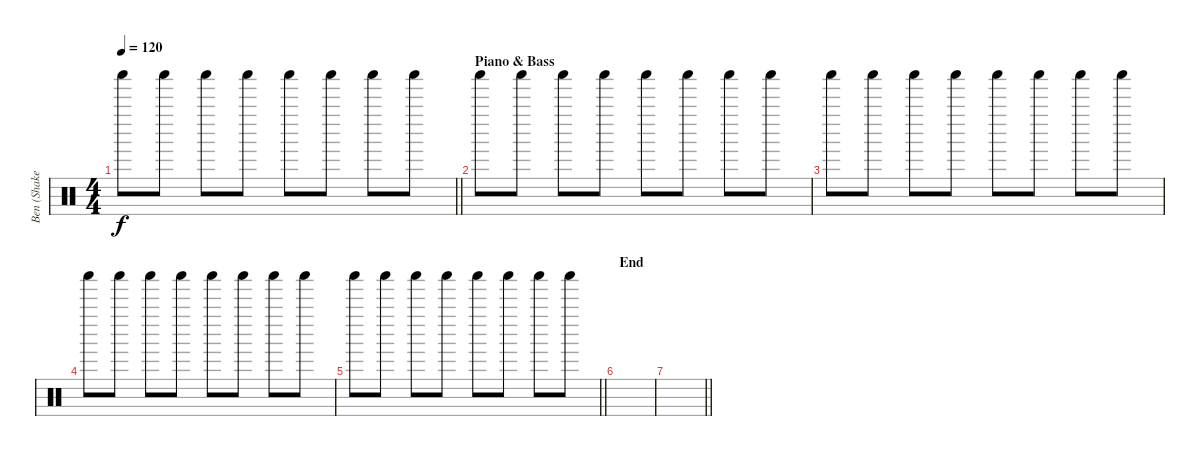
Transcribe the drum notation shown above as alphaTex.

\track ("Ben (Shaker LOL)" "Ben (Shake") {instrument percussion}
\staff {score}
\articulation defaults
\ts (4 4)
\tempo 120
\clef neutral
\barLineRight lightlight
\ks c "Shaker (hit)".8{dy f} "Shaker (hit)".8 "Shaker (hit)".8 "Shaker (hit)".8 "Shaker (hit)".8 "Shaker (hit)".8 "Shaker (hit)".8 "Shaker (hit)".8
|
\section ("" "Piano & Bass")
"Shaker (hit)".8 "Shaker (hit)".8 "Shaker (hit)".8 "Shaker (hit)".8 "Shaker (hit)".8 "Shaker (hit)".8 "Shaker (hit)".8 "Shaker (hit)".8 |
"Shaker (hit)".8 "Shaker (hit)".8 "Shaker (hit)".8 "Shaker (hit)".8 "Shaker (hit)".8 "Shaker (hit)".8 "Shaker (hit)".8 "Shaker (hit)".8 |
"Shaker (hit)".8 "Shaker (hit)".8 "Shaker (hit)".8 "Shaker (hit)".8 "Shaker (hit)".8 "Shaker (hit)".8 "Shaker (hit)".8 "Shaker (hit)".8 |
\barLineRight lightlight "Shaker (hit)".8 "Shaker (hit)".8 "Shaker (hit)".8 "Shaker (hit)".8 "Shaker (hit)".8 "Shaker (hit)".8 "Shaker (hit)".8 "Shaker (hit)".8
|
\section ("" "End")
|
\barLineRight lightlight
